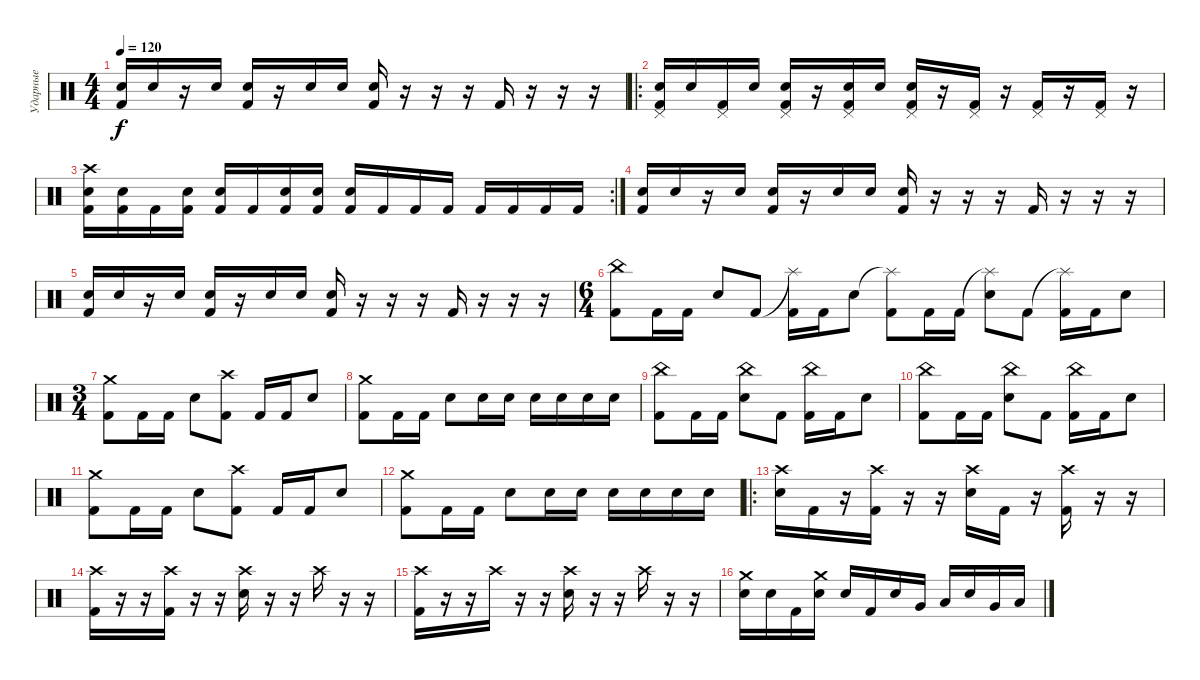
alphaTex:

\track ("Ударные" "Ударные") {instrument percussion}
\staff {score}
\articulation defaults
\ts (4 4)
\tempo 120
\clef neutral
\ks c
("Electric Snare (hit)" "Kick (hit) 2").16{dy f} "Electric Snare (hit)".16 r.16 "Electric Snare (hit)".16 ("Electric Snare (hit)" "Kick (hit) 2").16 r.16 "Electric Snare (hit)".16 "Electric Snare (hit)".16 ("Electric Snare (hit)" "Kick (hit) 2").16 r.16 r.16 r.16 "Kick (hit) 2".16 r.16 r.16 r.16 |
\ro
("Pedal Hi-Hat (hit)" "Electric Snare (hit)" "Kick (hit) 2").16 "Electric Snare (hit)".16 ("Pedal Hi-Hat (hit)" "Kick (hit) 2").16 "Electric Snare (hit)".16 ("Pedal Hi-Hat (hit)" "Electric Snare (hit)" "Kick (hit) 2").16 r.16 ("Pedal Hi-Hat (hit)" "Electric Snare (hit)" "Kick (hit) 2").16 "Electric Snare (hit)".16 ("Pedal Hi-Hat (hit)" "Electric Snare (hit)" "Kick (hit) 2").16 r.16 ("Pedal Hi-Hat (hit)" "Kick (hit) 2").16 r.16 ("Pedal Hi-Hat (hit)" "Kick (hit) 2").16 r.16 ("Pedal Hi-Hat (hit)" "Kick (hit) 2").16 r.16 |
\rc 2
("Crash high (hit)" "Electric Snare (hit)" "Kick (hit) 2").16 ("Electric Snare (hit)" "Kick (hit) 2").16 "Kick (hit) 2".16 ("Electric Snare (hit)" "Kick (hit) 2").16 ("Electric Snare (hit)" "Kick (hit) 2").16 "Kick (hit) 2".16 ("Electric Snare (hit)" "Kick (hit) 2").16 ("Electric Snare (hit)" "Kick (hit) 2").16 ("Electric Snare (hit)" "Kick (hit) 2").16 "Kick (hit) 2".16 "Kick (hit) 2".16 "Kick (hit) 2".16 "Kick (hit) 2".16 "Kick (hit) 2".16 "Kick (hit) 2".16 "Kick (hit) 2".16 |
("Electric Snare (hit)" "Kick (hit) 2").16 "Electric Snare (hit)".16 r.16 "Electric Snare (hit)".16 ("Electric Snare (hit)" "Kick (hit) 2").16 r.16 "Electric Snare (hit)".16 "Electric Snare (hit)".16 ("Electric Snare (hit)" "Kick (hit) 2").16 r.16 r.16 r.16 "Kick (hit) 2".16 r.16 r.16 r.16 |
("Electric Snare (hit)" "Kick (hit) 2").16 "Electric Snare (hit)".16 r.16 "Electric Snare (hit)".16 ("Electric Snare (hit)" "Kick (hit) 2").16 r.16 "Electric Snare (hit)".16 "Electric Snare (hit)".16 ("Electric Snare (hit)" "Kick (hit) 2").16 r.16 r.16 r.16 "Kick (hit) 2".16 r.16 r.16 r.16 |
\ts (6 4)
("China (hit)" "Kick (hit) 2").8 "Kick (hit) 2".16 "Kick (hit) 2".16 "Electric Snare (hit)".8 "Kick (hit) 2".8 ("Splash (hit)"{t} "Kick (hit) 2").16 "Kick (hit) 2".16 "Electric Snare (hit)".8 ("Splash (hit)"{t} "Kick (hit) 2").8 "Kick (hit) 2".16 "Kick (hit) 2".16 ("Splash (hit)"{t} "Electric Snare (hit)").8 "Kick (hit) 2".8 ("Splash (hit)"{t} "Kick (hit) 2").16 "Kick (hit) 2".16 "Electric Snare (hit)".8 |
\ts (3 4)
("Crash medium (hit)" "Kick (hit) 2").8 "Kick (hit) 2".16 "Kick (hit) 2".16 "Electric Snare (hit)".8 ("Crash high (hit)" "Kick (hit) 2").8 "Kick (hit) 2".16 "Kick (hit) 2".16 "Electric Snare (hit)".8 |
("Crash medium (hit)" "Kick (hit) 2").8 "Kick (hit) 2".16 "Kick (hit) 2".16 "Electric Snare (hit)".8 "Electric Snare (hit)".16 "Electric Snare (hit)".16 "Electric Snare (hit)".16 "Electric Snare (hit)".16 "Electric Snare (hit)".16 "Electric Snare (hit)".16 |
("China (hit)" "Kick (hit) 2").8 "Kick (hit) 2".16 "Kick (hit) 2".16 ("China (hit)" "Electric Snare (hit)").8 "Kick (hit) 2".8 ("China (hit)" "Kick (hit) 2").16 "Kick (hit) 2".16 "Electric Snare (hit)".8 |
("China (hit)" "Kick (hit) 2").8 "Kick (hit) 2".16 "Kick (hit) 2".16 ("China (hit)" "Electric Snare (hit)").8 "Kick (hit) 2".8 ("China (hit)" "Kick (hit) 2").16 "Kick (hit) 2".16 "Electric Snare (hit)".8 |
("Crash medium (hit)" "Kick (hit) 2").8 "Kick (hit) 2".16 "Kick (hit) 2".16 "Electric Snare (hit)".8 ("Crash high (hit)" "Kick (hit) 2").8 "Kick (hit) 2".16 "Kick (hit) 2".16 "Electric Snare (hit)".8 |
("Crash medium (hit)" "Kick (hit) 2").8 "Kick (hit) 2".16 "Kick (hit) 2".16 "Electric Snare (hit)".8 "Electric Snare (hit)".16 "Electric Snare (hit)".16 "Electric Snare (hit)".16 "Electric Snare (hit)".16 "Electric Snare (hit)".16 "Electric Snare (hit)".16 |
\ro
("Crash high (hit)" "Electric Snare (hit)").16 "Kick (hit) 2".16 r.16 ("Crash high (hit)" "Kick (hit) 2").16 r.16 r.16 ("Crash high (hit)" "Electric Snare (hit)").16 "Kick (hit) 2".16 r.16 ("Crash high (hit)" "Kick (hit) 2").16 r.16 r.16 |
("Crash high (hit)" "Kick (hit) 2").16 r.16 r.16 ("Crash high (hit)" "Kick (hit) 2").16 r.16 r.16 ("Crash high (hit)" "Electric Snare (hit)").16 r.16 r.16 "Crash high (hit)".16 r.16 r.16 |
("Crash high (hit)" "Kick (hit) 2").16 r.16 r.16 "Crash high (hit)".16 r.16 r.16 ("Crash high (hit)" "Electric Snare (hit)").16 r.16 r.16 "Crash high (hit)".16 r.16 r.16 |
("Crash medium (hit)" "Electric Snare (hit)").16 "Electric Snare (hit)".16 "Kick (hit) 2".16 ("Crash medium (hit)" "Electric Snare (hit)").16 "Electric Snare (hit)".16 "Kick (hit) 2".16 "Electric Snare (hit)".16 "Very Low Tom (hit)".16 "Low Tom (hit)".16 "Electric Snare (hit)".16 "Very Low Tom (hit)".16 "Low Tom (hit)".16
